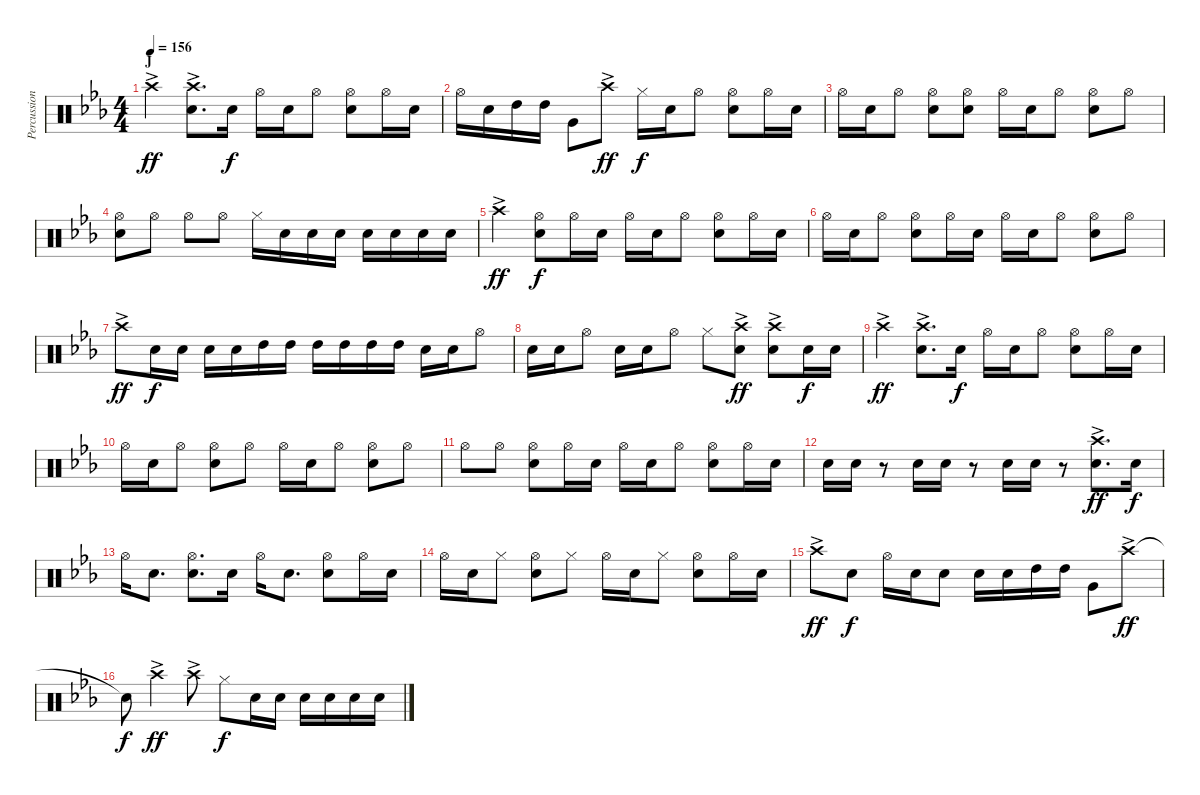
\track ("Percussion hand" "Percussion") {instrument percussion}
\staff {score}
\articulation defaults
\ts (4 4)
\section ("" "J")
\tempo 156
\clef neutral
\ks eb "Crash high (hit)"{ac}.4{dy ff}
("Crash high (hit)"{ac} "Snare (hit) 2").8{d} "Snare (hit) 2".16{dy f} "Hi-Hat (open)".16 "Snare (hit) 2".16 "Hi-Hat (open)".8 ("Hi-Hat (open)" "Snare (hit) 2").8 "Hi-Hat (open)".16 "Snare (hit) 2".16 |
"Hi-Hat (open)".16 "Snare (hit) 2".16 "High Tom (hit)".16 "High Tom (hit)".16 "Very Low Tom (hit)".8 "Crash high (hit)"{ac}.8{dy ff} "Hi-Hat (closed)".16{dy f} "Snare (hit) 2".16 "Hi-Hat (open)".8 ("Hi-Hat (open)" "Snare (hit) 2").8 "Hi-Hat (open)".16 "Snare (hit) 2".16 |
"Hi-Hat (open)".16 "Snare (hit) 2".16 "Hi-Hat (open)".8 ("Hi-Hat (open)" "Snare (hit) 2").8 ("Hi-Hat (open)" "Snare (hit) 2").8 "Hi-Hat (open)".16 "Snare (hit) 2".16 "Hi-Hat (open)".8 ("Hi-Hat (open)" "Snare (hit) 2").8 "Hi-Hat (open)".8 |
("Hi-Hat (open)" "Snare (hit) 2").8 "Hi-Hat (open)".8 "Hi-Hat (open)".8 "Hi-Hat (open)".8 "Hi-Hat (closed)".16 "Snare (hit) 2".16 "Snare (hit) 2".16 "Snare (hit) 2".16 "Snare (hit) 2".16 "Snare (hit) 2".16 "Snare (hit) 2".16 "Snare (hit) 2".16 |
"Crash high (hit)"{ac}.4{dy ff} ("Hi-Hat (open)" "Snare (hit) 2").8{dy f} "Hi-Hat (open)".16 "Snare (hit) 2".16 "Hi-Hat (open)".16 "Snare (hit) 2".16 "Hi-Hat (open)".8 ("Hi-Hat (open)" "Snare (hit) 2").8 "Hi-Hat (open)".16 "Snare (hit) 2".16 |
"Hi-Hat (open)".16 "Snare (hit) 2".16 "Hi-Hat (open)".8 ("Hi-Hat (open)" "Snare (hit) 2").8 "Hi-Hat (open)".16 "Snare (hit) 2".16 "Hi-Hat (open)".16 "Snare (hit) 2".16 "Hi-Hat (open)".8 ("Hi-Hat (open)" "Snare (hit) 2").8 "Hi-Hat (open)".8 |
"Crash high (hit)"{ac}.8{dy ff} "Snare (hit) 2".16{dy f} "Snare (hit) 2".16 "Snare (hit) 2".16 "Snare (hit) 2".16 "High Tom (hit)".16 "High Tom (hit)".16 "High Tom (hit)".16 "High Tom (hit)".16 "High Tom (hit)".16 "High Tom (hit)".16 "Snare (hit) 2".16 "Snare (hit) 2".16 "Hi-Hat (open)".8 |
"Snare (hit) 2".16 "Snare (hit) 2".16 "Hi-Hat (open)".8 "Snare (hit) 2".16 "Snare (hit) 2".16 "Hi-Hat (open)".8 "Hi-Hat (closed)".8 ("Crash high (hit)"{ac} "Snare (hit) 2").8{dy ff} ("Crash high (hit)"{ac} "Snare (hit) 2").8 "Snare (hit) 2".16{dy f} "Snare (hit) 2".16 |
"Crash high (hit)"{ac}.4{dy ff} ("Crash high (hit)"{ac} "Snare (hit) 2").8{d} "Snare (hit) 2".16{dy f} "Hi-Hat (open)".16 "Snare (hit) 2".16 "Hi-Hat (open)".8 ("Hi-Hat (open)" "Snare (hit) 2").8 "Hi-Hat (open)".16 "Snare (hit) 2".16 |
"Hi-Hat (open)".16 "Snare (hit) 2".16 "Hi-Hat (open)".8 ("Hi-Hat (open)" "Snare (hit) 2").8 "Hi-Hat (open)".8 "Hi-Hat (open)".16 "Snare (hit) 2".16 "Hi-Hat (open)".8 ("Hi-Hat (open)" "Snare (hit) 2").8 "Hi-Hat (open)".8 |
"Hi-Hat (open)".8 "Hi-Hat (open)".8 ("Hi-Hat (open)" "Snare (hit) 2").8 "Hi-Hat (open)".16 "Snare (hit) 2".16 "Hi-Hat (open)".16 "Snare (hit) 2".16 "Hi-Hat (open)".8 ("Hi-Hat (open)" "Snare (hit) 2").8 "Hi-Hat (open)".16 "Snare (hit) 2".16 |
"Snare (hit) 2".16 "Snare (hit) 2".16 r.8 "Snare (hit) 2".16 "Snare (hit) 2".16 r.8 "Snare (hit) 2".16 "Snare (hit) 2".16 r.8 ("Crash high (hit)"{ac} "Snare (hit) 2").8{d dy ff} "Snare (hit) 2".16{dy f} |
"Hi-Hat (open)".16 "Snare (hit) 2".8{d} ("Hi-Hat (open)" "Snare (hit) 2").8{d} "Snare (hit) 2".16 "Hi-Hat (open)".16 "Snare (hit) 2".8{d} ("Snare (hit) 2" "Hi-Hat (open)").8 "Hi-Hat (open)".16 "Snare (hit) 2".16 |
"Hi-Hat (open)".16 "Snare (hit) 2".16 "Hi-Hat (closed)".8 ("Hi-Hat (open)" "Snare (hit) 2").8 "Hi-Hat (closed)".8 "Hi-Hat (open)".16 "Snare (hit) 2".16 "Hi-Hat (closed)".8 ("Hi-Hat (open)" "Snare (hit) 2").8 "Hi-Hat (open)".16 "Snare (hit) 2".16 |
"Crash high (hit)"{ac}.8{dy ff} "Snare (hit) 2".8{dy f} "Hi-Hat (open)".16 "Snare (hit) 2".16 "Snare (hit) 2".8 "Snare (hit) 2".16 "Snare (hit) 2".16 "High Tom (hit)".16 "High Tom (hit)".16 "Very Low Tom (hit)".8 "Crash high (hit)"{ac}.8{dy ff} |
"Snare (hit)"{t}.8{dy f} "Crash high (hit)"{ac}.4{dy ff} "Crash high (hit)"{ac}.8 "Hi-Hat (closed)".8{dy f} "Snare (hit) 2".16 "Snare (hit) 2".16 "Snare (hit) 2".16 "Snare (hit) 2".16 "Snare (hit) 2".16 "Snare (hit) 2".16
